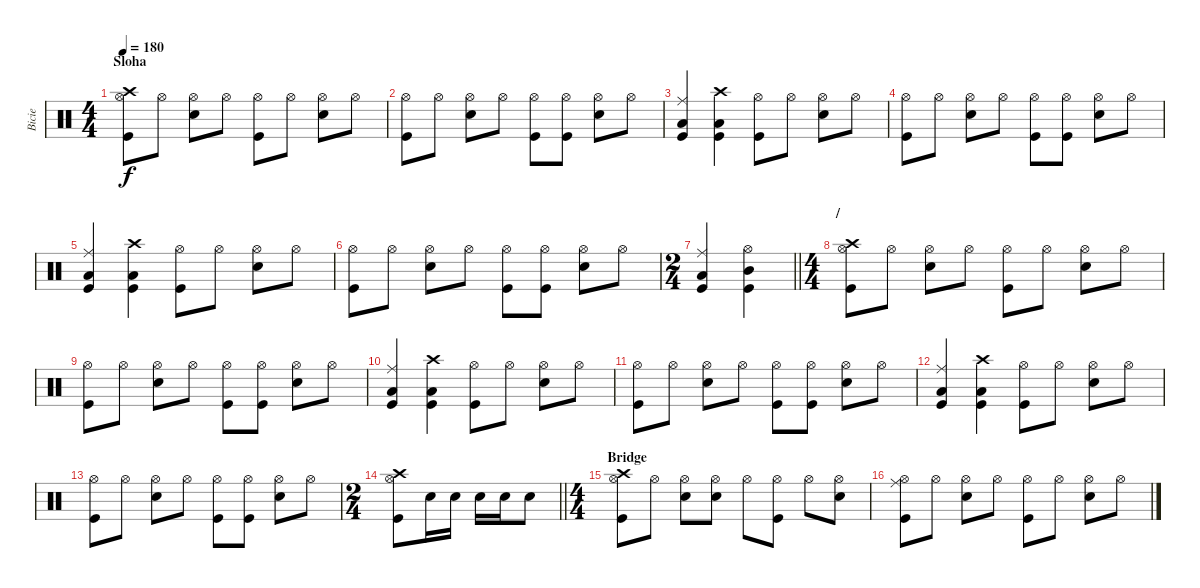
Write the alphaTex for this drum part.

\track ("Bicie" "Bicie") {instrument percussion}
\staff {score}
\articulation defaults
\ts (4 4)
\section ("" "Sloha")
\tempo 180
\clef neutral
\ks c
("Crash high (hit)" "Hi-Hat (open)" "Kick (hit)").8{dy f} "Hi-Hat (open)".8 ("Hi-Hat (open)" "Snare (hit) 2").8 "Hi-Hat (open)".8 ("Hi-Hat (open)" "Kick (hit)").8 "Hi-Hat (open)".8 ("Hi-Hat (open)" "Snare (hit) 2").8 "Hi-Hat (open)".8 |
("Hi-Hat (open)" "Kick (hit)").8 "Hi-Hat (open)".8 ("Hi-Hat (open)" "Snare (hit) 2").8 "Hi-Hat (open)".8 ("Hi-Hat (open)" "Kick (hit)").8 ("Hi-Hat (open)" "Kick (hit)").8 ("Hi-Hat (open)" "Snare (hit) 2").8 "Hi-Hat (open)".8 |
("Ride (middle)" "Low Tom (hit)" "Kick (hit)").4 ("Crash high (hit)" "Low Floor Tom (hit)" "Kick (hit)").4 ("Hi-Hat (open)" "Kick (hit)").8 "Hi-Hat (open)".8 ("Hi-Hat (open)" "Snare (hit) 2").8 "Hi-Hat (open)".8 |
("Hi-Hat (open)" "Kick (hit)").8 "Hi-Hat (open)".8 ("Hi-Hat (open)" "Snare (hit) 2").8 "Hi-Hat (open)".8 ("Hi-Hat (open)" "Kick (hit)").8 ("Hi-Hat (open)" "Kick (hit)").8 ("Hi-Hat (open)" "Snare (hit) 2").8 "Hi-Hat (open)".8 |
("Ride (middle)" "Low Tom (hit)" "Kick (hit)").4 ("Crash high (hit)" "Low Floor Tom (hit)" "Kick (hit)").4 ("Hi-Hat (open)" "Kick (hit)").8 "Hi-Hat (open)".8 ("Hi-Hat (open)" "Snare (hit) 2").8 "Hi-Hat (open)".8 |
("Hi-Hat (open)" "Kick (hit)").8 "Hi-Hat (open)".8 ("Hi-Hat (open)" "Snare (hit) 2").8 "Hi-Hat (open)".8 ("Hi-Hat (open)" "Kick (hit)").8 ("Hi-Hat (open)" "Kick (hit)").8 ("Hi-Hat (open)" "Snare (hit) 2").8 "Hi-Hat (open)".8 |
\ts (2 4)
\barLineRight lightlight
("Ride (middle)" "Low Tom (hit)" "Kick (hit)").4 ("Hi-Hat (open)" "Mid Tom (hit)" "Kick (hit)").4 |
\ts (4 4)
\section ("" "/")
("Crash high (hit)" "Hi-Hat (open)" "Kick (hit)").8 "Hi-Hat (open)".8 ("Hi-Hat (open)" "Snare (hit) 2").8 "Hi-Hat (open)".8 ("Hi-Hat (open)" "Kick (hit)").8 "Hi-Hat (open)".8 ("Hi-Hat (open)" "Snare (hit) 2").8 "Hi-Hat (open)".8 |
("Hi-Hat (open)" "Kick (hit)").8 "Hi-Hat (open)".8 ("Hi-Hat (open)" "Snare (hit) 2").8 "Hi-Hat (open)".8 ("Hi-Hat (open)" "Kick (hit)").8 ("Hi-Hat (open)" "Kick (hit)").8 ("Hi-Hat (open)" "Snare (hit) 2").8 "Hi-Hat (open)".8 |
("Ride (middle)" "Low Tom (hit)" "Kick (hit)").4 ("Crash high (hit)" "Low Floor Tom (hit)" "Kick (hit)").4 ("Hi-Hat (open)" "Kick (hit)").8 "Hi-Hat (open)".8 ("Hi-Hat (open)" "Snare (hit) 2").8 "Hi-Hat (open)".8 |
("Hi-Hat (open)" "Kick (hit)").8 "Hi-Hat (open)".8 ("Hi-Hat (open)" "Snare (hit) 2").8 "Hi-Hat (open)".8 ("Hi-Hat (open)" "Kick (hit)").8 ("Hi-Hat (open)" "Kick (hit)").8 ("Hi-Hat (open)" "Snare (hit) 2").8 "Hi-Hat (open)".8 |
("Ride (middle)" "Low Tom (hit)" "Kick (hit)").4 ("Crash high (hit)" "Low Floor Tom (hit)" "Kick (hit)").4 ("Hi-Hat (open)" "Kick (hit)").8 "Hi-Hat (open)".8 ("Hi-Hat (open)" "Snare (hit) 2").8 "Hi-Hat (open)".8 |
("Hi-Hat (open)" "Kick (hit)").8 "Hi-Hat (open)".8 ("Hi-Hat (open)" "Snare (hit) 2").8 "Hi-Hat (open)".8 ("Hi-Hat (open)" "Kick (hit)").8 ("Hi-Hat (open)" "Kick (hit)").8 ("Hi-Hat (open)" "Snare (hit) 2").8 "Hi-Hat (open)".8 |
\ts (2 4)
\barLineRight lightlight
("Crash high (hit)" "Hi-Hat (open)" "Kick (hit)").8 "Snare (hit) 2".16 "Snare (hit) 2".16 "Snare (hit) 2".16 "Snare (hit) 2".16 "Snare (hit) 2".8 |
\ts (4 4)
\section ("" "Bridge")
("Crash high (hit)" "Hi-Hat (open)" "Kick (hit)").8 "Hi-Hat (open)".8 ("Hi-Hat (open)" "Snare (hit) 2").8 ("Hi-Hat (open)" "Snare (hit) 2").8 "Hi-Hat (open)".8 ("Hi-Hat (open)" "Kick (hit)").8 "Hi-Hat (open)".8 ("Hi-Hat (open)" "Snare (hit) 2").8 |
("Ride (middle)" "Hi-Hat (open)" "Kick (hit)").8 "Hi-Hat (open)".8 ("Hi-Hat (open)" "Snare (hit) 2").8 "Hi-Hat (open)".8 ("Hi-Hat (open)" "Kick (hit)").8 "Hi-Hat (open)".8 ("Hi-Hat (open)" "Snare (hit) 2").8 "Hi-Hat (open)".8
